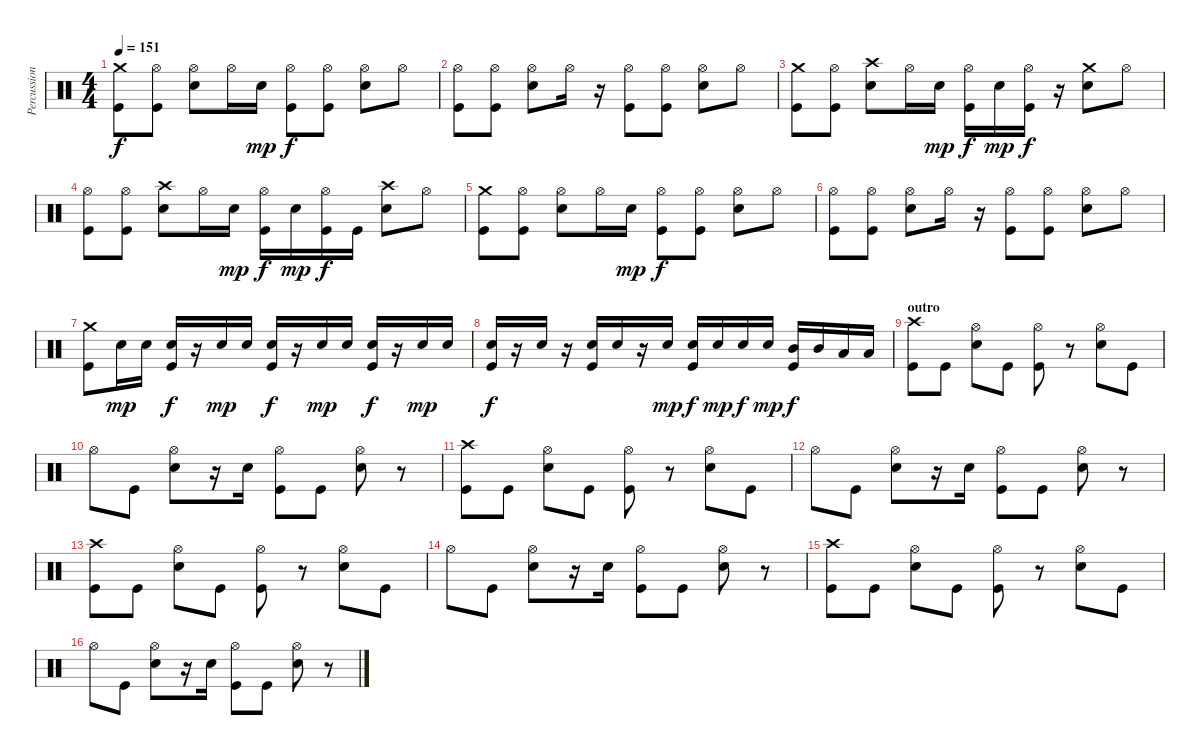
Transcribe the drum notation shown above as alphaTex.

\track ("Percussion" "Percussion") {instrument percussion}
\staff {score}
\articulation defaults
\ts (4 4)
\tempo 151
\clef neutral
\ks c
("Crash medium (hit)" "Kick (hit)").8{dy f} ("Hi-Hat (open)" "Kick (hit)").8 ("Hi-Hat (open)" "Electric Snare (hit)").8 "Hi-Hat (open)".16 "Electric Snare (hit)".16{dy mp} ("Hi-Hat (open)" "Kick (hit)").8{dy f} ("Hi-Hat (open)" "Kick (hit)").8 ("Hi-Hat (open)" "Electric Snare (hit)").8 "Hi-Hat (open)".8 |
("Hi-Hat (open)" "Kick (hit)").8 ("Hi-Hat (open)" "Kick (hit)").8 ("Hi-Hat (open)" "Electric Snare (hit)").8 "Hi-Hat (open)".16 r.16 ("Hi-Hat (open)" "Kick (hit)").8 ("Hi-Hat (open)" "Kick (hit)").8 ("Hi-Hat (open)" "Electric Snare (hit)").8 "Hi-Hat (open)".8 |
("Crash medium (hit)" "Kick (hit)").8 ("Hi-Hat (open)" "Kick (hit)").8 ("Crash high (hit)" "Electric Snare (hit)").8 "Hi-Hat (open)".16 "Electric Snare (hit)".16{dy mp} ("Hi-Hat (open)" "Kick (hit)").16{dy f} "Electric Snare (hit)".16{dy mp} ("Hi-Hat (open)" "Kick (hit)").16{dy f} r.16 ("Crash medium (hit)" "Electric Snare (hit)").8 "Hi-Hat (open)".8 |
("Hi-Hat (open)" "Kick (hit)").8 ("Hi-Hat (open)" "Kick (hit)").8 ("Crash high (hit)" "Electric Snare (hit)").8 "Hi-Hat (open)".16 "Electric Snare (hit)".16{dy mp} ("Hi-Hat (open)" "Kick (hit)").16{dy f} "Electric Snare (hit)".16{dy mp} ("Hi-Hat (open)" "Kick (hit)").16{dy f} "Kick (hit)".16 ("Crash high (hit)" "Electric Snare (hit)").8 "Hi-Hat (open)".8 |
("Crash medium (hit)" "Kick (hit)").8 ("Hi-Hat (open)" "Kick (hit)").8 ("Hi-Hat (open)" "Electric Snare (hit)").8 "Hi-Hat (open)".16 "Electric Snare (hit)".16{dy mp} ("Hi-Hat (open)" "Kick (hit)").8{dy f} ("Hi-Hat (open)" "Kick (hit)").8 ("Hi-Hat (open)" "Electric Snare (hit)").8 "Hi-Hat (open)".8 |
("Hi-Hat (open)" "Kick (hit)").8 ("Hi-Hat (open)" "Kick (hit)").8 ("Hi-Hat (open)" "Electric Snare (hit)").8 "Hi-Hat (open)".16 r.16 ("Hi-Hat (open)" "Kick (hit)").8 ("Hi-Hat (open)" "Kick (hit)").8 ("Hi-Hat (open)" "Electric Snare (hit)").8 "Hi-Hat (open)".8 |
("Crash medium (hit)" "Kick (hit)").8 "Electric Snare (hit)".16{dy mp} "Electric Snare (hit)".16 ("Kick (hit)" "Electric Snare (hit)").16{dy f} r.16 "Electric Snare (hit)".16{dy mp} "Electric Snare (hit)".16 ("Kick (hit)" "Electric Snare (hit)").16{dy f} r.16 "Electric Snare (hit)".16{dy mp} "Electric Snare (hit)".16 ("Kick (hit)" "Electric Snare (hit)").16{dy f} r.16 "Electric Snare (hit)".16{dy mp} "Electric Snare (hit)".16 |
("Kick (hit)" "Electric Snare (hit)").16{dy f} r.16 "Electric Snare (hit)".16 r.16 ("Kick (hit)" "Electric Snare (hit)").16 "Electric Snare (hit)".16 r.16 "Electric Snare (hit)".16{dy mp} ("Kick (hit)" "Electric Snare (hit)").16{dy f} "Electric Snare (hit)".16{dy mp} "Electric Snare (hit)".16{dy f} "Electric Snare (hit)".16{dy mp} ("Kick (hit)" "Mid Tom (hit)").16{dy f} "Mid Tom (hit)".16 "Low Tom (hit)".16 "Low Tom (hit)".16 |
\section ("" "outro")
("Crash high (hit)" "Kick (hit)").8 "Kick (hit)".8 ("Hi-Hat (open)" "Electric Snare (hit)").8 "Kick (hit)".8 ("Hi-Hat (open)" "Kick (hit)").8 r.8 ("Hi-Hat (open)" "Electric Snare (hit)").8 "Kick (hit)".8 |
"Hi-Hat (open)".8 "Kick (hit)".8 ("Hi-Hat (open)" "Electric Snare (hit)").8 r.16 "Electric Snare (hit)".16 ("Hi-Hat (open)" "Kick (hit)").8 "Kick (hit)".8 ("Hi-Hat (open)" "Electric Snare (hit)").8 r.8 |
("Crash high (hit)" "Kick (hit)").8 "Kick (hit)".8 ("Hi-Hat (open)" "Electric Snare (hit)").8 "Kick (hit)".8 ("Hi-Hat (open)" "Kick (hit)").8 r.8 ("Hi-Hat (open)" "Electric Snare (hit)").8 "Kick (hit)".8 |
"Hi-Hat (open)".8 "Kick (hit)".8 ("Hi-Hat (open)" "Electric Snare (hit)").8 r.16 "Electric Snare (hit)".16 ("Hi-Hat (open)" "Kick (hit)").8 "Kick (hit)".8 ("Hi-Hat (open)" "Electric Snare (hit)").8 r.8 |
("Crash high (hit)" "Kick (hit)").8 "Kick (hit)".8 ("Hi-Hat (open)" "Electric Snare (hit)").8 "Kick (hit)".8 ("Hi-Hat (open)" "Kick (hit)").8 r.8 ("Hi-Hat (open)" "Electric Snare (hit)").8 "Kick (hit)".8 |
"Hi-Hat (open)".8 "Kick (hit)".8 ("Hi-Hat (open)" "Electric Snare (hit)").8 r.16 "Electric Snare (hit)".16 ("Hi-Hat (open)" "Kick (hit)").8 "Kick (hit)".8 ("Hi-Hat (open)" "Electric Snare (hit)").8 r.8 |
("Crash high (hit)" "Kick (hit)").8 "Kick (hit)".8 ("Hi-Hat (open)" "Electric Snare (hit)").8 "Kick (hit)".8 ("Hi-Hat (open)" "Kick (hit)").8 r.8 ("Hi-Hat (open)" "Electric Snare (hit)").8 "Kick (hit)".8 |
"Hi-Hat (open)".8 "Kick (hit)".8 ("Hi-Hat (open)" "Electric Snare (hit)").8 r.16 "Electric Snare (hit)".16 ("Hi-Hat (open)" "Kick (hit)").8 "Kick (hit)".8 ("Hi-Hat (open)" "Electric Snare (hit)").8 r.8
